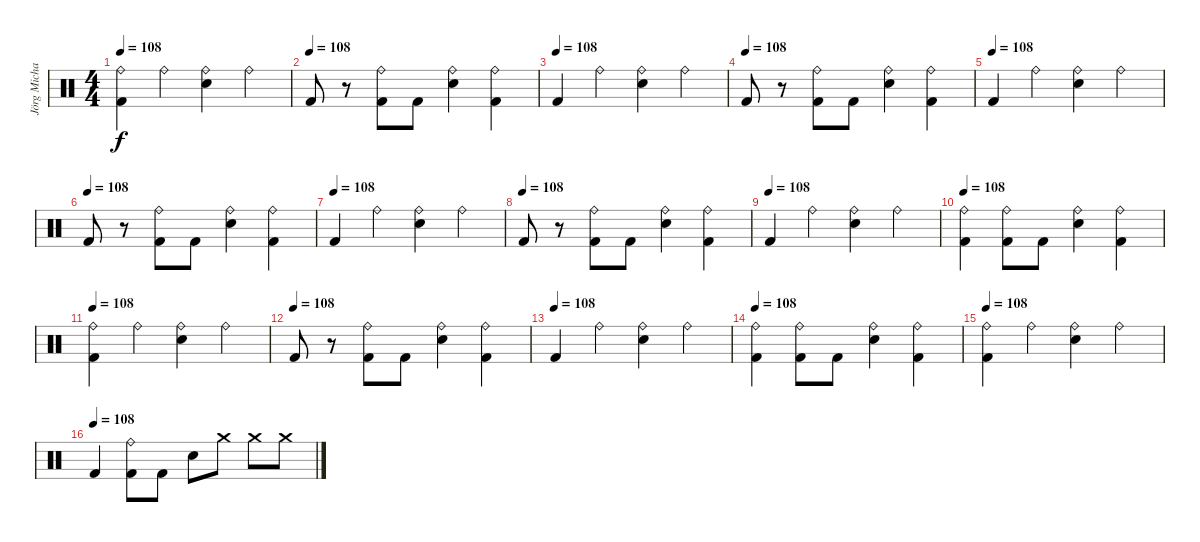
\track ("Jörg Michael (Drums)" "Jörg Micha") {instrument percussion}
\staff {score}
\articulation defaults
\ts (4 4)
\tempo 108
\clef neutral
\ks c
("Kick (hit) 2" "Ride (bell)").4{dy f} "Ride (bell)".4 ("Snare (hit) 2" "Ride (bell)").4 "Ride (bell)".4 |
\tempo (108)
"Kick (hit) 2".8 r.8 ("Kick (hit) 2" "Ride (bell)").8 "Kick (hit) 2".8 ("Snare (hit) 2" "Ride (bell)").4 ("Kick (hit) 2" "Ride (bell)").4 |
\tempo (108)
"Kick (hit) 2".4 "Ride (bell)".4 ("Snare (hit) 2" "Ride (bell)").4 "Ride (bell)".4 |
\tempo (108)
"Kick (hit) 2".8 r.8 ("Kick (hit) 2" "Ride (bell)").8 "Kick (hit) 2".8 ("Snare (hit) 2" "Ride (bell)").4 ("Kick (hit) 2" "Ride (bell)").4 |
\tempo (108)
"Kick (hit) 2".4 "Ride (bell)".4 ("Snare (hit) 2" "Ride (bell)").4 "Ride (bell)".4 |
\tempo (108)
"Kick (hit) 2".8 r.8 ("Kick (hit) 2" "Ride (bell)").8 "Kick (hit) 2".8 ("Snare (hit) 2" "Ride (bell)").4 ("Kick (hit) 2" "Ride (bell)").4 |
\tempo (108)
"Kick (hit) 2".4 "Ride (bell)".4 ("Snare (hit) 2" "Ride (bell)").4 "Ride (bell)".4 |
\tempo (108)
"Kick (hit) 2".8 r.8 ("Kick (hit) 2" "Ride (bell)").8 "Kick (hit) 2".8 ("Snare (hit) 2" "Ride (bell)").4 ("Kick (hit) 2" "Ride (bell)").4 |
\tempo (108)
"Kick (hit) 2".4 "Ride (bell)".4 ("Snare (hit) 2" "Ride (bell)").4 "Ride (bell)".4 |
\tempo 108
("Ride (bell)" "Kick (hit) 2").4 ("Kick (hit) 2" "Ride (bell)").8 "Kick (hit) 2".8 ("Snare (hit) 2" "Ride (bell)").4 ("Kick (hit) 2" "Ride (bell)").4 |
\tempo 108
("Ride (bell)" "Kick (hit) 2").4 "Ride (bell)".4 ("Snare (hit) 2" "Ride (bell)").4 "Ride (bell)".4 |
\tempo (108)
"Kick (hit) 2".8 r.8 ("Kick (hit) 2" "Ride (bell)").8 "Kick (hit) 2".8 ("Snare (hit) 2" "Ride (bell)").4 ("Kick (hit) 2" "Ride (bell)").4 |
\tempo (108)
"Kick (hit) 2".4 "Ride (bell)".4 ("Snare (hit) 2" "Ride (bell)").4 "Ride (bell)".4 |
\tempo 108
("Ride (bell)" "Kick (hit) 2").4 ("Kick (hit) 2" "Ride (bell)").8 "Kick (hit) 2".8 ("Snare (hit) 2" "Ride (bell)").4 ("Kick (hit) 2" "Ride (bell)").4 |
\tempo 108
("Ride (bell)" "Kick (hit) 2").4 "Ride (bell)".4 ("Snare (hit) 2" "Ride (bell)").4 "Ride (bell)".4 |
\tempo (108)
"Kick (hit) 2".4 ("Ride (bell)" "Kick (hit) 2").8 "Kick (hit) 2".8 "Snare (hit) 2".8 "Crash medium (hit)".8 "Crash medium (hit)".8 "Crash medium (hit)".8
